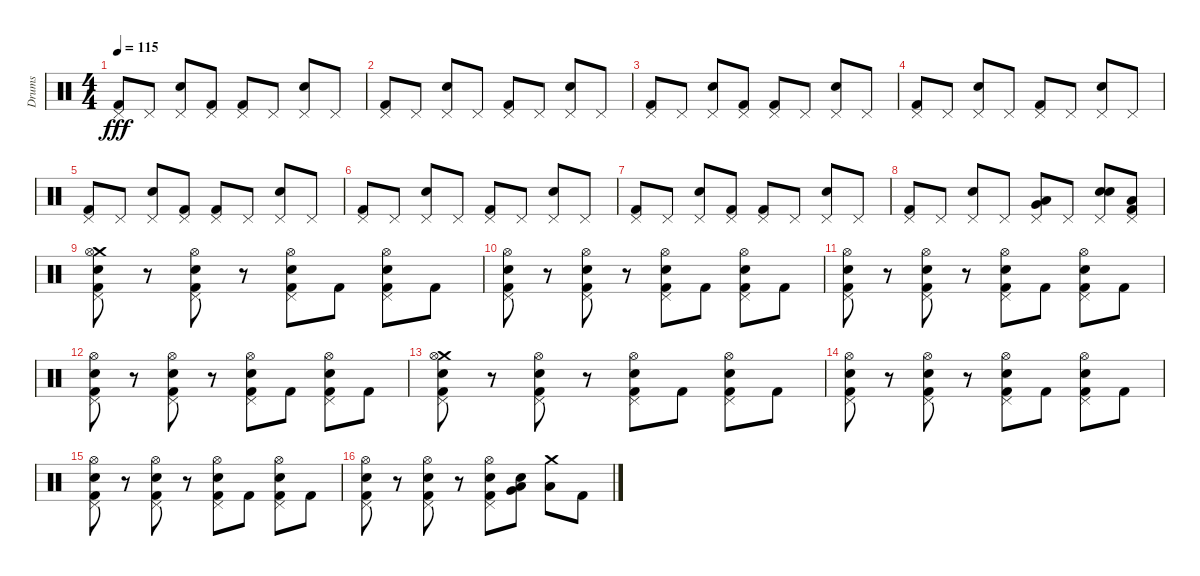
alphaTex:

\track ("Drums" "Drums") {instrument percussion}
\staff {score}
\articulation defaults
\ts (4 4)
\tempo 115
\clef neutral
\ks c
("Kick (hit) 2" "Pedal Hi-Hat (hit)").8{dy fff} "Pedal Hi-Hat (hit)".8 ("Snare (hit) 2" "Pedal Hi-Hat (hit)").8 ("Pedal Hi-Hat (hit)" "Kick (hit) 2").8 ("Pedal Hi-Hat (hit)" "Kick (hit) 2").8 "Pedal Hi-Hat (hit)".8 ("Pedal Hi-Hat (hit)" "Snare (hit) 2").8 "Pedal Hi-Hat (hit)".8 |
("Kick (hit) 2" "Pedal Hi-Hat (hit)").8 "Pedal Hi-Hat (hit)".8 ("Snare (hit) 2" "Pedal Hi-Hat (hit)").8 "Pedal Hi-Hat (hit)".8 ("Pedal Hi-Hat (hit)" "Kick (hit) 2").8 "Pedal Hi-Hat (hit)".8 ("Pedal Hi-Hat (hit)" "Snare (hit) 2").8 "Pedal Hi-Hat (hit)".8 |
("Kick (hit) 2" "Pedal Hi-Hat (hit)").8 "Pedal Hi-Hat (hit)".8 ("Snare (hit) 2" "Pedal Hi-Hat (hit)").8 ("Pedal Hi-Hat (hit)" "Kick (hit) 2").8 ("Pedal Hi-Hat (hit)" "Kick (hit) 2").8 "Pedal Hi-Hat (hit)".8 ("Pedal Hi-Hat (hit)" "Snare (hit) 2").8 "Pedal Hi-Hat (hit)".8 |
("Kick (hit) 2" "Pedal Hi-Hat (hit)").8 "Pedal Hi-Hat (hit)".8 ("Snare (hit) 2" "Pedal Hi-Hat (hit)").8 "Pedal Hi-Hat (hit)".8 ("Pedal Hi-Hat (hit)" "Kick (hit) 2").8 "Pedal Hi-Hat (hit)".8 ("Pedal Hi-Hat (hit)" "Snare (hit) 2").8 "Pedal Hi-Hat (hit)".8 |
("Kick (hit) 2" "Pedal Hi-Hat (hit)").8 "Pedal Hi-Hat (hit)".8 ("Snare (hit) 2" "Pedal Hi-Hat (hit)").8 ("Pedal Hi-Hat (hit)" "Kick (hit) 2").8 ("Pedal Hi-Hat (hit)" "Kick (hit) 2").8 "Pedal Hi-Hat (hit)".8 ("Pedal Hi-Hat (hit)" "Snare (hit) 2").8 "Pedal Hi-Hat (hit)".8 |
("Kick (hit) 2" "Pedal Hi-Hat (hit)").8 "Pedal Hi-Hat (hit)".8 ("Snare (hit) 2" "Pedal Hi-Hat (hit)").8 "Pedal Hi-Hat (hit)".8 ("Pedal Hi-Hat (hit)" "Kick (hit) 2").8 "Pedal Hi-Hat (hit)".8 ("Pedal Hi-Hat (hit)" "Snare (hit) 2").8 "Pedal Hi-Hat (hit)".8 |
("Kick (hit) 2" "Pedal Hi-Hat (hit)").8 "Pedal Hi-Hat (hit)".8 ("Snare (hit) 2" "Pedal Hi-Hat (hit)").8 ("Pedal Hi-Hat (hit)" "Kick (hit) 2").8 ("Pedal Hi-Hat (hit)" "Kick (hit) 2").8 "Pedal Hi-Hat (hit)".8 ("Pedal Hi-Hat (hit)" "Snare (hit) 2").8 "Pedal Hi-Hat (hit)".8 |
("Kick (hit) 2" "Pedal Hi-Hat (hit)").8 "Pedal Hi-Hat (hit)".8 ("Snare (hit) 2" "Pedal Hi-Hat (hit)").8 "Pedal Hi-Hat (hit)".8 ("Low Floor Tom (hit)" "Very Low Tom (hit)" "Pedal Hi-Hat (hit)").8 "Pedal Hi-Hat (hit)".8 ("Snare (hit) 2" "Pedal Hi-Hat (hit)" "Snare (hit) 2").8 ("Low Floor Tom (hit)" "Kick (hit) 2" "Pedal Hi-Hat (hit)").8 |
("Crash medium (hit)" "Pedal Hi-Hat (hit)" "Hi-Hat (open)" "Kick (hit) 2" "Snare (hit) 2").8 r.8 ("Pedal Hi-Hat (hit)" "Hi-Hat (open)" "Kick (hit) 2" "Snare (hit) 2").8 r.8 ("Pedal Hi-Hat (hit)" "Hi-Hat (open)" "Kick (hit) 2" "Snare (hit) 2").8 "Kick (hit) 2".8 ("Pedal Hi-Hat (hit)" "Hi-Hat (open)" "Kick (hit) 2" "Snare (hit) 2").8 "Kick (hit) 2".8 |
("Pedal Hi-Hat (hit)" "Hi-Hat (open)" "Kick (hit) 2" "Snare (hit) 2").8 r.8 ("Pedal Hi-Hat (hit)" "Hi-Hat (open)" "Kick (hit) 2" "Snare (hit) 2").8 r.8 ("Pedal Hi-Hat (hit)" "Hi-Hat (open)" "Kick (hit) 2" "Snare (hit) 2").8 "Kick (hit) 2".8 ("Pedal Hi-Hat (hit)" "Hi-Hat (open)" "Kick (hit) 2" "Snare (hit) 2").8 "Kick (hit) 2".8 |
("Pedal Hi-Hat (hit)" "Hi-Hat (open)" "Kick (hit) 2" "Snare (hit) 2").8 r.8 ("Pedal Hi-Hat (hit)" "Hi-Hat (open)" "Kick (hit) 2" "Snare (hit) 2").8 r.8 ("Pedal Hi-Hat (hit)" "Hi-Hat (open)" "Kick (hit) 2" "Snare (hit) 2").8 "Kick (hit) 2".8 ("Pedal Hi-Hat (hit)" "Hi-Hat (open)" "Kick (hit) 2" "Snare (hit) 2").8 "Kick (hit) 2".8 |
("Pedal Hi-Hat (hit)" "Hi-Hat (open)" "Kick (hit) 2" "Snare (hit) 2").8 r.8 ("Pedal Hi-Hat (hit)" "Hi-Hat (open)" "Kick (hit) 2" "Snare (hit) 2").8 r.8 ("Pedal Hi-Hat (hit)" "Hi-Hat (open)" "Kick (hit) 2" "Snare (hit) 2").8 "Kick (hit) 2".8 ("Pedal Hi-Hat (hit)" "Hi-Hat (open)" "Kick (hit) 2" "Snare (hit) 2").8 "Kick (hit) 2".8 |
("Crash medium (hit)" "Pedal Hi-Hat (hit)" "Hi-Hat (open)" "Kick (hit) 2" "Snare (hit) 2").8 r.8 ("Pedal Hi-Hat (hit)" "Hi-Hat (open)" "Kick (hit) 2" "Snare (hit) 2").8 r.8 ("Pedal Hi-Hat (hit)" "Hi-Hat (open)" "Kick (hit) 2" "Snare (hit) 2").8 "Kick (hit) 2".8 ("Pedal Hi-Hat (hit)" "Hi-Hat (open)" "Kick (hit) 2" "Snare (hit) 2").8 "Kick (hit) 2".8 |
("Pedal Hi-Hat (hit)" "Hi-Hat (open)" "Kick (hit) 2" "Snare (hit) 2").8 r.8 ("Pedal Hi-Hat (hit)" "Hi-Hat (open)" "Kick (hit) 2" "Snare (hit) 2").8 r.8 ("Pedal Hi-Hat (hit)" "Hi-Hat (open)" "Kick (hit) 2" "Snare (hit) 2").8 "Kick (hit) 2".8 ("Pedal Hi-Hat (hit)" "Hi-Hat (open)" "Kick (hit) 2" "Snare (hit) 2").8 "Kick (hit) 2".8 |
("Pedal Hi-Hat (hit)" "Hi-Hat (open)" "Kick (hit) 2" "Snare (hit) 2").8 r.8 ("Pedal Hi-Hat (hit)" "Hi-Hat (open)" "Kick (hit) 2" "Snare (hit) 2").8 r.8 ("Pedal Hi-Hat (hit)" "Hi-Hat (open)" "Kick (hit) 2" "Snare (hit) 2").8 "Kick (hit) 2".8 ("Pedal Hi-Hat (hit)" "Hi-Hat (open)" "Kick (hit) 2" "Snare (hit) 2").8 "Kick (hit) 2".8 |
("Pedal Hi-Hat (hit)" "Hi-Hat (open)" "Kick (hit) 2" "Snare (hit) 2").8 r.8 ("Pedal Hi-Hat (hit)" "Hi-Hat (open)" "Kick (hit) 2" "Snare (hit) 2").8 r.8 ("Pedal Hi-Hat (hit)" "Hi-Hat (open)" "Kick (hit) 2" "Snare (hit) 2").8 ("Snare (hit) 2" "Very Low Tom (hit)" "Low Floor Tom (hit)").8 ("Low Floor Tom (hit)" "Crash medium (hit)").8 "Kick (hit) 2".8
